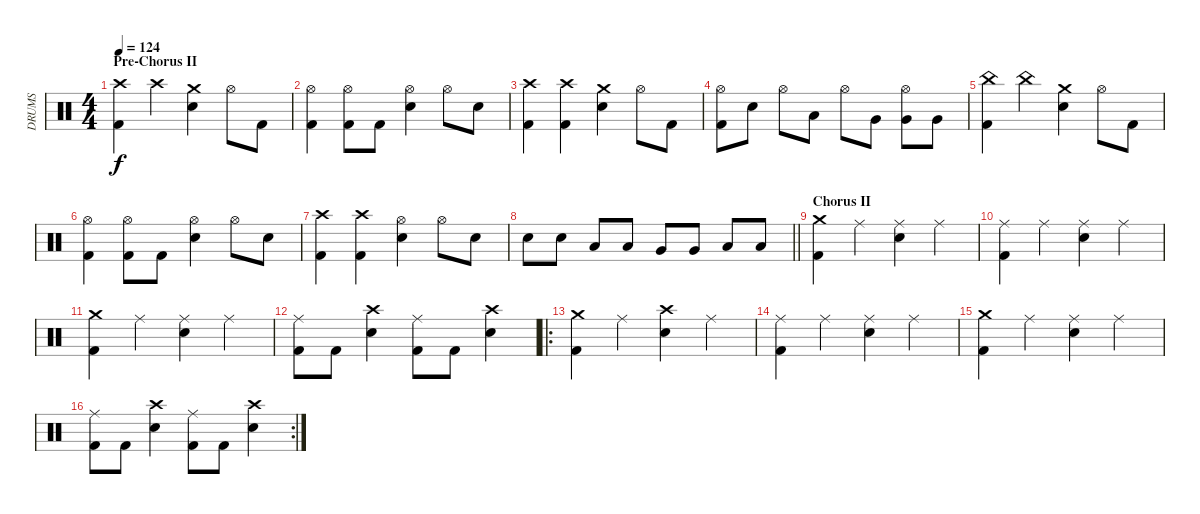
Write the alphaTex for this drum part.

\track ("DRUMS" "DRUMS") {instrument percussion}
\staff {score}
\articulation defaults
\ts (4 4)
\section ("" "Pre-Chorus II")
\tempo 124
\clef neutral
\ks c
("Crash high (hit)" "Kick (hit) 2").4{dy f} "Crash high (hit)".4 ("Crash medium (hit)" "Snare (hit) 2").4 "Hi-Hat (open)".8 "Kick (hit) 2".8 |
("Hi-Hat (open)" "Kick (hit) 2").4 ("Hi-Hat (open)" "Kick (hit) 2").8 "Kick (hit) 2".8 ("Hi-Hat (open)" "Snare (hit) 2").4 "Hi-Hat (open)".8 "Snare (hit) 2".8 |
("Crash high (hit)" "Kick (hit) 2").4 ("Crash high (hit)" "Kick (hit) 2").4 ("Crash medium (hit)" "Snare (hit) 2").4 "Hi-Hat (open)".8 "Kick (hit) 2".8 |
("Hi-Hat (open)" "Kick (hit) 2").8 "Snare (hit) 2".8 "Hi-Hat (open)".8 "Low Tom (hit)".8 "Hi-Hat (open)".8 "Very Low Tom (hit)".8 ("Hi-Hat (open)" "Very Low Tom (hit)").8 "Very Low Tom (hit)".8 |
("China (hit)" "Kick (hit) 2").4 "China (hit)".4 ("Crash medium (hit)" "Snare (hit) 2").4 "Hi-Hat (open)".8 "Kick (hit) 2".8 |
("Hi-Hat (open)" "Kick (hit) 2").4 ("Hi-Hat (open)" "Kick (hit) 2").8 "Kick (hit) 2".8 ("Hi-Hat (open)" "Snare (hit) 2").4 "Hi-Hat (open)".8 "Snare (hit) 2".8 |
("Crash high (hit)" "Kick (hit) 2").4 ("Crash high (hit)" "Kick (hit) 2").4 ("Hi-Hat (open)" "Snare (hit) 2").4 "Hi-Hat (open)".8 "Snare (hit) 2".8 |
\barLineRight lightlight "Snare (hit) 2".8 "Snare (hit) 2".8 "Low Tom (hit)".8 "Low Tom (hit)".8 "Very Low Tom (hit)".8 "Very Low Tom (hit)".8 "Low Floor Tom (hit)".8 "Low Floor Tom (hit)".8
|
\section ("" "Chorus II")
("Crash medium (hit)" "Kick (hit) 2").4 "Ride (middle)".4 ("Ride (middle)" "Snare (hit) 2").4 "Ride (middle)".4 |
("Ride (middle)" "Kick (hit) 2").4 "Ride (middle)".4 ("Ride (middle)" "Snare (hit) 2").4 "Ride (middle)".4 |
("Crash medium (hit)" "Kick (hit) 2").4 "Ride (middle)".4 ("Ride (middle)" "Snare (hit) 2").4 "Ride (middle)".4 |
("Ride (middle)" "Kick (hit) 2").8 "Kick (hit) 2".8 ("Crash high (hit)" "Snare (hit) 2").4 ("Ride (middle)" "Kick (hit) 2").8 "Kick (hit) 2".8 ("Crash high (hit)" "Snare (hit) 2").4 |
\ro
("Crash medium (hit)" "Kick (hit) 2").4 "Ride (middle)".4 ("Crash high (hit)" "Snare (hit) 2").4 "Ride (middle)".4 |
("Ride (middle)" "Kick (hit) 2").4 "Ride (middle)".4 ("Ride (middle)" "Snare (hit) 2").4 "Ride (middle)".4 |
("Crash medium (hit)" "Kick (hit) 2").4 "Ride (middle)".4 ("Ride (middle)" "Snare (hit) 2").4 "Ride (middle)".4 |
\rc 2
("Ride (middle)" "Kick (hit) 2").8 "Kick (hit) 2".8 ("Crash high (hit)" "Snare (hit) 2").4 ("Ride (middle)" "Kick (hit) 2").8 "Kick (hit) 2".8 ("Crash high (hit)" "Snare (hit) 2").4
